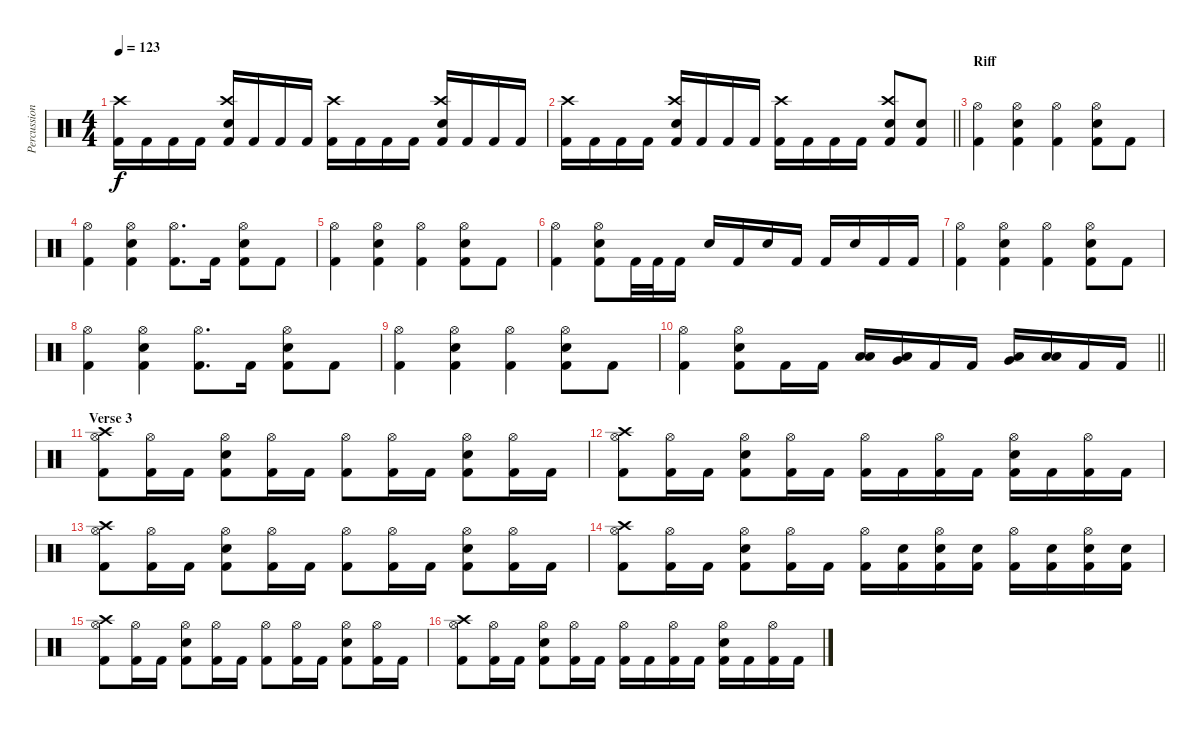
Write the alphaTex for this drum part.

\track ("Percussion" "Percussion") {instrument percussion}
\staff {score}
\articulation defaults
\ts (4 4)
\tempo 123
\clef neutral
\ks c
("Kick (hit) 2" "Crash high (hit)").16{dy f} "Kick (hit) 2".16 "Kick (hit) 2".16 "Kick (hit) 2".16 ("Snare (hit) 2" "Kick (hit) 2" "Crash high (hit)").16 "Kick (hit) 2".16 "Kick (hit) 2".16 "Kick (hit) 2".16 ("Kick (hit) 2" "Crash high (hit)").16 "Kick (hit) 2".16 "Kick (hit) 2".16 "Kick (hit) 2".16 ("Snare (hit) 2" "Kick (hit) 2" "Crash high (hit)").16 "Kick (hit) 2".16 "Kick (hit) 2".16 "Kick (hit) 2".16 |
\barLineRight lightlight
("Kick (hit) 2" "Crash high (hit)").16 "Kick (hit) 2".16 "Kick (hit) 2".16 "Kick (hit) 2".16 ("Snare (hit) 2" "Kick (hit) 2" "Crash high (hit)").16 "Kick (hit) 2".16 "Kick (hit) 2".16 "Kick (hit) 2".16 ("Kick (hit) 2" "Crash high (hit)").16 "Kick (hit) 2".16 "Kick (hit) 2".16 "Kick (hit) 2".16 ("Snare (hit) 2" "Kick (hit) 2" "Crash high (hit)").8 ("Snare (hit) 2" "Kick (hit) 2").8 |
\section ("" "Riff")
("Hi-Hat (open)" "Kick (hit) 2").4 ("Hi-Hat (open)" "Snare (hit) 2" "Kick (hit) 2").4 ("Hi-Hat (open)" "Kick (hit) 2").4 ("Hi-Hat (open)" "Snare (hit) 2" "Kick (hit) 2").8 "Kick (hit) 2".8 |
("Hi-Hat (open)" "Kick (hit) 2").4 ("Hi-Hat (open)" "Snare (hit) 2" "Kick (hit) 2").4 ("Hi-Hat (open)" "Kick (hit) 2").8{d} "Kick (hit) 2".16 ("Hi-Hat (open)" "Snare (hit) 2" "Kick (hit) 2").8 "Kick (hit) 2".8 |
("Hi-Hat (open)" "Kick (hit) 2").4 ("Hi-Hat (open)" "Snare (hit) 2" "Kick (hit) 2").4 ("Hi-Hat (open)" "Kick (hit) 2").4 ("Hi-Hat (open)" "Snare (hit) 2" "Kick (hit) 2").8 "Kick (hit) 2".8 |
("Hi-Hat (open)" "Kick (hit) 2").4 ("Hi-Hat (open)" "Snare (hit) 2" "Kick (hit) 2").8 "Kick (hit) 2".32 "Kick (hit) 2".32 "Kick (hit) 2".16 "Snare (hit) 2".16 "Kick (hit) 2".16 "Snare (hit) 2".16 "Kick (hit) 2".16 "Kick (hit) 2".16 "Snare (hit) 2".16 "Kick (hit) 2".16 "Kick (hit) 2".16 |
("Hi-Hat (open)" "Kick (hit) 2").4 ("Hi-Hat (open)" "Snare (hit) 2" "Kick (hit) 2").4 ("Hi-Hat (open)" "Kick (hit) 2").4 ("Hi-Hat (open)" "Snare (hit) 2" "Kick (hit) 2").8 "Kick (hit) 2".8 |
("Hi-Hat (open)" "Kick (hit) 2").4 ("Hi-Hat (open)" "Snare (hit) 2" "Kick (hit) 2").4 ("Hi-Hat (open)" "Kick (hit) 2").8{d} "Kick (hit) 2".16 ("Hi-Hat (open)" "Snare (hit) 2" "Kick (hit) 2").8 "Kick (hit) 2".8 |
("Hi-Hat (open)" "Kick (hit) 2").4 ("Hi-Hat (open)" "Snare (hit) 2" "Kick (hit) 2").4 ("Hi-Hat (open)" "Kick (hit) 2").4 ("Hi-Hat (open)" "Snare (hit) 2" "Kick (hit) 2").8 "Kick (hit) 2".8 |
\barLineRight lightlight
("Hi-Hat (open)" "Kick (hit) 2").4 ("Hi-Hat (open)" "Snare (hit) 2" "Kick (hit) 2").8 "Kick (hit) 2".16 "Kick (hit) 2".16 ("Low Floor Tom (hit)" "Low Tom (hit)").16 ("Low Floor Tom (hit)" "Very Low Tom (hit)").16 "Kick (hit) 2".16 "Kick (hit) 2".16 ("Low Floor Tom (hit)" "Very Low Tom (hit)").16 ("Low Floor Tom (hit)" "Low Floor Tom (hit)").16 "Kick (hit) 2".16 "Kick (hit) 2".16 |
\section ("" "Verse 3")
("Hi-Hat (open)" "Kick (hit) 2" "Crash high (hit)").8 ("Hi-Hat (open)" "Kick (hit) 2").16 "Kick (hit) 2".16 ("Hi-Hat (open)" "Snare (hit) 2" "Kick (hit) 2").8 ("Hi-Hat (open)" "Kick (hit) 2").16 "Kick (hit) 2".16 ("Hi-Hat (open)" "Kick (hit) 2").8 ("Hi-Hat (open)" "Kick (hit) 2").16 "Kick (hit) 2".16 ("Hi-Hat (open)" "Snare (hit) 2" "Kick (hit) 2").8 ("Hi-Hat (open)" "Kick (hit) 2").16 "Kick (hit) 2".16 |
("Hi-Hat (open)" "Kick (hit) 2" "Crash high (hit)").8 ("Hi-Hat (open)" "Kick (hit) 2").16 "Kick (hit) 2".16 ("Hi-Hat (open)" "Snare (hit) 2" "Kick (hit) 2").8 ("Hi-Hat (open)" "Kick (hit) 2").16 "Kick (hit) 2".16 ("Hi-Hat (open)" "Kick (hit) 2").16 "Kick (hit) 2".16 ("Hi-Hat (open)" "Kick (hit) 2").16 "Kick (hit) 2".16 ("Hi-Hat (open)" "Snare (hit) 2" "Kick (hit) 2").16 "Kick (hit) 2".16 ("Hi-Hat (open)" "Kick (hit) 2").16 "Kick (hit) 2".16 |
("Hi-Hat (open)" "Kick (hit) 2" "Crash high (hit)").8 ("Hi-Hat (open)" "Kick (hit) 2").16 "Kick (hit) 2".16 ("Hi-Hat (open)" "Snare (hit) 2" "Kick (hit) 2").8 ("Hi-Hat (open)" "Kick (hit) 2").16 "Kick (hit) 2".16 ("Hi-Hat (open)" "Kick (hit) 2").8 ("Hi-Hat (open)" "Kick (hit) 2").16 "Kick (hit) 2".16 ("Hi-Hat (open)" "Snare (hit) 2" "Kick (hit) 2").8 ("Hi-Hat (open)" "Kick (hit) 2").16 "Kick (hit) 2".16 |
("Hi-Hat (open)" "Kick (hit) 2" "Crash high (hit)").8 ("Hi-Hat (open)" "Kick (hit) 2").16 "Kick (hit) 2".16 ("Hi-Hat (open)" "Snare (hit) 2" "Kick (hit) 2").8 ("Hi-Hat (open)" "Kick (hit) 2").16 "Kick (hit) 2".16 ("Hi-Hat (open)" "Kick (hit) 2").16 ("Snare (hit) 2" "Kick (hit) 2").16 ("Hi-Hat (open)" "Snare (hit) 2" "Kick (hit) 2").16 ("Snare (hit) 2" "Kick (hit) 2").16 ("Hi-Hat (open)" "Kick (hit) 2").16 ("Snare (hit) 2" "Kick (hit) 2").16 ("Hi-Hat (open)" "Snare (hit) 2" "Kick (hit) 2").16 ("Snare (hit) 2" "Kick (hit) 2").16 |
("Hi-Hat (open)" "Kick (hit) 2" "Crash high (hit)").8 ("Hi-Hat (open)" "Kick (hit) 2").16 "Kick (hit) 2".16 ("Hi-Hat (open)" "Snare (hit) 2" "Kick (hit) 2").8 ("Hi-Hat (open)" "Kick (hit) 2").16 "Kick (hit) 2".16 ("Hi-Hat (open)" "Kick (hit) 2").8 ("Hi-Hat (open)" "Kick (hit) 2").16 "Kick (hit) 2".16 ("Hi-Hat (open)" "Snare (hit) 2" "Kick (hit) 2").8 ("Hi-Hat (open)" "Kick (hit) 2").16 "Kick (hit) 2".16 |
("Hi-Hat (open)" "Kick (hit) 2" "Crash high (hit)").8 ("Hi-Hat (open)" "Kick (hit) 2").16 "Kick (hit) 2".16 ("Hi-Hat (open)" "Snare (hit) 2" "Kick (hit) 2").8 ("Hi-Hat (open)" "Kick (hit) 2").16 "Kick (hit) 2".16 ("Hi-Hat (open)" "Kick (hit) 2").16 "Kick (hit) 2".16 ("Hi-Hat (open)" "Kick (hit) 2").16 "Kick (hit) 2".16 ("Hi-Hat (open)" "Snare (hit) 2" "Kick (hit) 2").16 "Kick (hit) 2".16 ("Hi-Hat (open)" "Kick (hit) 2").16 "Kick (hit) 2".16
